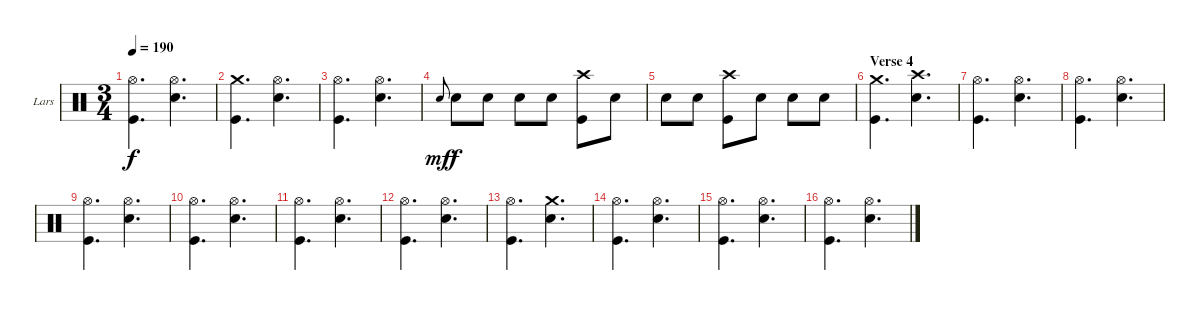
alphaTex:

\bracketExtendMode groupsimilarinstruments
\firstSystemTrackNameOrientation horizontal
\otherSystemsTrackNameOrientation horizontal
\track ("Drumkit" "Lars") {instrument percussion}
\staff {score}
\articulation defaults
\ts (3 4)
\tempo 190
\clef neutral
\ks c
("Hi-Hat (open)" "Kick (hit)").4{d dy f} ("Hi-Hat (open)" "Snare (hit) 2").4{d} |
("Crash medium (hit)" "Kick (hit)").4{d} ("Hi-Hat (open)" "Snare (hit) 2").4{d} |
("Hi-Hat (open)" "Kick (hit)").4{d} ("Hi-Hat (open)" "Snare (hit) 2").4{d} |
"Snare (hit) 2".8{gr onbeat dy mf} "Snare (hit) 2".8{dy f} "Snare (hit) 2".8 "Snare (hit) 2".8 "Snare (hit) 2".8 ("Crash high (hit)" "Kick (hit)").8 "Snare (hit) 2".8 |
"Snare (hit) 2".8 "Snare (hit) 2".8 ("Crash high (hit)" "Kick (hit)").8 "Snare (hit) 2".8 "Snare (hit) 2".8 "Snare (hit) 2".8 |
\section ("" "Verse 4")
("Crash medium (hit)" "Kick (hit)").4{d} ("Crash high (hit)" "Snare (hit) 2").4{d} |
("Hi-Hat (open)" "Kick (hit)").4{d} ("Hi-Hat (open)" "Snare (hit) 2").4{d} |
("Hi-Hat (open)" "Kick (hit)").4{d} ("Hi-Hat (open)" "Snare (hit) 2").4{d} |
("Hi-Hat (open)" "Kick (hit)").4{d} ("Hi-Hat (open)" "Snare (hit) 2").4{d} |
("Hi-Hat (open)" "Kick (hit)").4{d} ("Hi-Hat (open)" "Snare (hit) 2").4{d} |
("Hi-Hat (open)" "Kick (hit)").4{d} ("Hi-Hat (open)" "Snare (hit) 2").4{d} |
("Hi-Hat (open)" "Kick (hit)").4{d} ("Hi-Hat (open)" "Snare (hit) 2").4{d} |
("Hi-Hat (open)" "Kick (hit)").4{d} ("Crash medium (hit)" "Snare (hit) 2").4{d} |
("Hi-Hat (open)" "Kick (hit)").4{d} ("Hi-Hat (open)" "Snare (hit) 2").4{d} |
("Hi-Hat (open)" "Kick (hit)").4{d} ("Hi-Hat (open)" "Snare (hit) 2").4{d} |
("Hi-Hat (open)" "Kick (hit)").4{d} ("Hi-Hat (open)" "Snare (hit) 2").4{d}
